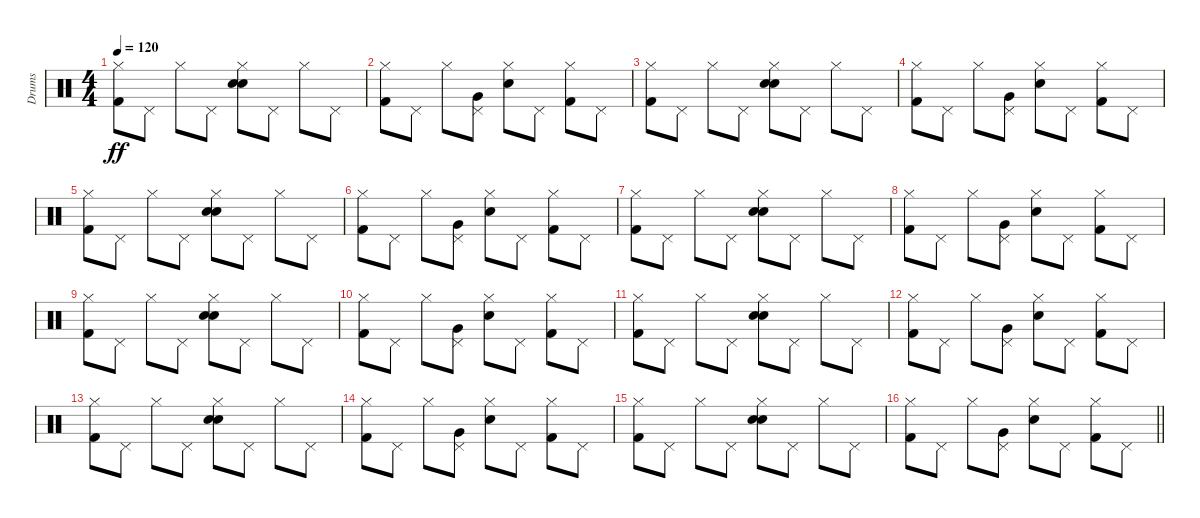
\track ("Drums" "Drums") {instrument percussion}
\staff {score}
\articulation defaults
\ts (4 4)
\tempo 120
\clef neutral
\ks c
("Kick (hit) 2" "Hi-Hat (closed)").8{dy ff} "Pedal Hi-Hat (hit)".8 "Hi-Hat (closed)".8 "Pedal Hi-Hat (hit)".8 ("Electric Snare (hit)" "Electric Snare (hit)" "Hi-Hat (closed)").8 "Pedal Hi-Hat (hit)".8 "Hi-Hat (closed)".8 "Pedal Hi-Hat (hit)".8 |
("Kick (hit) 2" "Hi-Hat (closed)").8 "Pedal Hi-Hat (hit)".8 "Hi-Hat (closed)".8 ("Very Low Tom (hit)" "Pedal Hi-Hat (hit)").8 ("Electric Snare (hit)" "Hi-Hat (closed)").8 "Pedal Hi-Hat (hit)".8 ("Kick (hit) 2" "Hi-Hat (closed)").8 "Pedal Hi-Hat (hit)".8 |
("Kick (hit) 2" "Hi-Hat (closed)").8 "Pedal Hi-Hat (hit)".8 "Hi-Hat (closed)".8 "Pedal Hi-Hat (hit)".8 ("Electric Snare (hit)" "Electric Snare (hit)" "Hi-Hat (closed)").8 "Pedal Hi-Hat (hit)".8 "Hi-Hat (closed)".8 "Pedal Hi-Hat (hit)".8 |
("Kick (hit) 2" "Hi-Hat (closed)").8 "Pedal Hi-Hat (hit)".8 "Hi-Hat (closed)".8 ("Very Low Tom (hit)" "Pedal Hi-Hat (hit)").8 ("Electric Snare (hit)" "Hi-Hat (closed)").8 "Pedal Hi-Hat (hit)".8 ("Kick (hit) 2" "Hi-Hat (closed)").8 "Pedal Hi-Hat (hit)".8 |
("Kick (hit) 2" "Hi-Hat (closed)").8 "Pedal Hi-Hat (hit)".8 "Hi-Hat (closed)".8 "Pedal Hi-Hat (hit)".8 ("Electric Snare (hit)" "Electric Snare (hit)" "Hi-Hat (closed)").8 "Pedal Hi-Hat (hit)".8 "Hi-Hat (closed)".8 "Pedal Hi-Hat (hit)".8 |
("Kick (hit) 2" "Hi-Hat (closed)").8 "Pedal Hi-Hat (hit)".8 "Hi-Hat (closed)".8 ("Very Low Tom (hit)" "Pedal Hi-Hat (hit)").8 ("Electric Snare (hit)" "Hi-Hat (closed)").8 "Pedal Hi-Hat (hit)".8 ("Kick (hit) 2" "Hi-Hat (closed)").8 "Pedal Hi-Hat (hit)".8 |
("Kick (hit) 2" "Hi-Hat (closed)").8 "Pedal Hi-Hat (hit)".8 "Hi-Hat (closed)".8 "Pedal Hi-Hat (hit)".8 ("Electric Snare (hit)" "Electric Snare (hit)" "Hi-Hat (closed)").8 "Pedal Hi-Hat (hit)".8 "Hi-Hat (closed)".8 "Pedal Hi-Hat (hit)".8 |
("Kick (hit) 2" "Hi-Hat (closed)").8 "Pedal Hi-Hat (hit)".8 "Hi-Hat (closed)".8 ("Very Low Tom (hit)" "Pedal Hi-Hat (hit)").8 ("Electric Snare (hit)" "Hi-Hat (closed)").8 "Pedal Hi-Hat (hit)".8 ("Kick (hit) 2" "Hi-Hat (closed)").8 "Pedal Hi-Hat (hit)".8 |
("Kick (hit) 2" "Hi-Hat (closed)").8 "Pedal Hi-Hat (hit)".8 "Hi-Hat (closed)".8 "Pedal Hi-Hat (hit)".8 ("Electric Snare (hit)" "Electric Snare (hit)" "Hi-Hat (closed)").8 "Pedal Hi-Hat (hit)".8 "Hi-Hat (closed)".8 "Pedal Hi-Hat (hit)".8 |
("Kick (hit) 2" "Hi-Hat (closed)").8 "Pedal Hi-Hat (hit)".8 "Hi-Hat (closed)".8 ("Very Low Tom (hit)" "Pedal Hi-Hat (hit)").8 ("Electric Snare (hit)" "Hi-Hat (closed)").8 "Pedal Hi-Hat (hit)".8 ("Kick (hit) 2" "Hi-Hat (closed)").8 "Pedal Hi-Hat (hit)".8 |
("Kick (hit) 2" "Hi-Hat (closed)").8 "Pedal Hi-Hat (hit)".8 "Hi-Hat (closed)".8 "Pedal Hi-Hat (hit)".8 ("Electric Snare (hit)" "Electric Snare (hit)" "Hi-Hat (closed)").8 "Pedal Hi-Hat (hit)".8 "Hi-Hat (closed)".8 "Pedal Hi-Hat (hit)".8 |
("Kick (hit) 2" "Hi-Hat (closed)").8 "Pedal Hi-Hat (hit)".8 "Hi-Hat (closed)".8 ("Very Low Tom (hit)" "Pedal Hi-Hat (hit)").8 ("Electric Snare (hit)" "Hi-Hat (closed)").8 "Pedal Hi-Hat (hit)".8 ("Kick (hit) 2" "Hi-Hat (closed)").8 "Pedal Hi-Hat (hit)".8 |
("Kick (hit) 2" "Hi-Hat (closed)").8 "Pedal Hi-Hat (hit)".8 "Hi-Hat (closed)".8 "Pedal Hi-Hat (hit)".8 ("Electric Snare (hit)" "Electric Snare (hit)" "Hi-Hat (closed)").8 "Pedal Hi-Hat (hit)".8 "Hi-Hat (closed)".8 "Pedal Hi-Hat (hit)".8 |
("Kick (hit) 2" "Hi-Hat (closed)").8 "Pedal Hi-Hat (hit)".8 "Hi-Hat (closed)".8 ("Very Low Tom (hit)" "Pedal Hi-Hat (hit)").8 ("Electric Snare (hit)" "Hi-Hat (closed)").8 "Pedal Hi-Hat (hit)".8 ("Kick (hit) 2" "Hi-Hat (closed)").8 "Pedal Hi-Hat (hit)".8 |
("Kick (hit) 2" "Hi-Hat (closed)").8 "Pedal Hi-Hat (hit)".8 "Hi-Hat (closed)".8 "Pedal Hi-Hat (hit)".8 ("Electric Snare (hit)" "Electric Snare (hit)" "Hi-Hat (closed)").8 "Pedal Hi-Hat (hit)".8 "Hi-Hat (closed)".8 "Pedal Hi-Hat (hit)".8 |
\barLineRight lightlight
("Kick (hit) 2" "Hi-Hat (closed)").8 "Pedal Hi-Hat (hit)".8 "Hi-Hat (closed)".8 ("Very Low Tom (hit)" "Pedal Hi-Hat (hit)").8 ("Electric Snare (hit)" "Hi-Hat (closed)").8 "Pedal Hi-Hat (hit)".8 ("Kick (hit) 2" "Hi-Hat (closed)").8 "Pedal Hi-Hat (hit)".8
